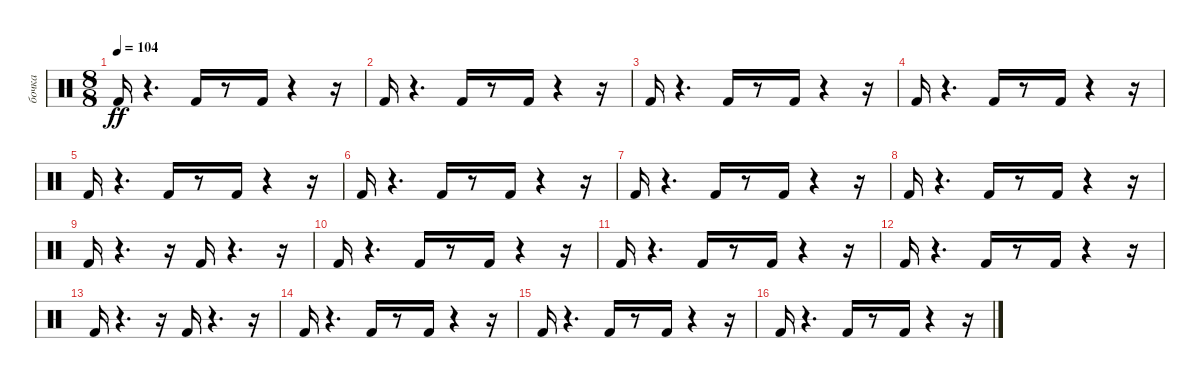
\track ("бочка" "бочка") {instrument percussion}
\staff {score}
\articulation defaults
\ts (8 8)
\tempo 104
\clef neutral
\ks c "Kick (hit) 2".16{dy ff}
r.4{d} "Kick (hit) 2".16 r.8 "Kick (hit) 2".16 r.4 r.16 |
"Kick (hit) 2".16 r.4{d} "Kick (hit) 2".16 r.8 "Kick (hit) 2".16 r.4 r.16 |
"Kick (hit) 2".16 r.4{d} "Kick (hit) 2".16 r.8 "Kick (hit) 2".16 r.4 r.16 |
"Kick (hit) 2".16 r.4{d} "Kick (hit) 2".16 r.8 "Kick (hit) 2".16 r.4 r.16 |
"Kick (hit) 2".16 r.4{d} "Kick (hit) 2".16 r.8 "Kick (hit) 2".16 r.4 r.16 |
"Kick (hit) 2".16 r.4{d} "Kick (hit) 2".16 r.8 "Kick (hit) 2".16 r.4 r.16 |
"Kick (hit) 2".16 r.4{d} "Kick (hit) 2".16 r.8 "Kick (hit) 2".16 r.4 r.16 |
"Kick (hit) 2".16 r.4{d} "Kick (hit) 2".16 r.8 "Kick (hit) 2".16 r.4 r.16 |
"Kick (hit) 2".16 r.4{d} r.16 "Kick (hit) 2".16 r.4{d} r.16 |
"Kick (hit) 2".16 r.4{d} "Kick (hit) 2".16 r.8 "Kick (hit) 2".16 r.4 r.16 |
"Kick (hit) 2".16 r.4{d} "Kick (hit) 2".16 r.8 "Kick (hit) 2".16 r.4 r.16 |
"Kick (hit) 2".16 r.4{d} "Kick (hit) 2".16 r.8 "Kick (hit) 2".16 r.4 r.16 |
"Kick (hit) 2".16 r.4{d} r.16 "Kick (hit) 2".16 r.4{d} r.16 |
"Kick (hit) 2".16 r.4{d} "Kick (hit) 2".16 r.8 "Kick (hit) 2".16 r.4 r.16 |
"Kick (hit) 2".16 r.4{d} "Kick (hit) 2".16 r.8 "Kick (hit) 2".16 r.4 r.16 |
"Kick (hit) 2".16 r.4{d} "Kick (hit) 2".16 r.8 "Kick (hit) 2".16 r.4 r.16
